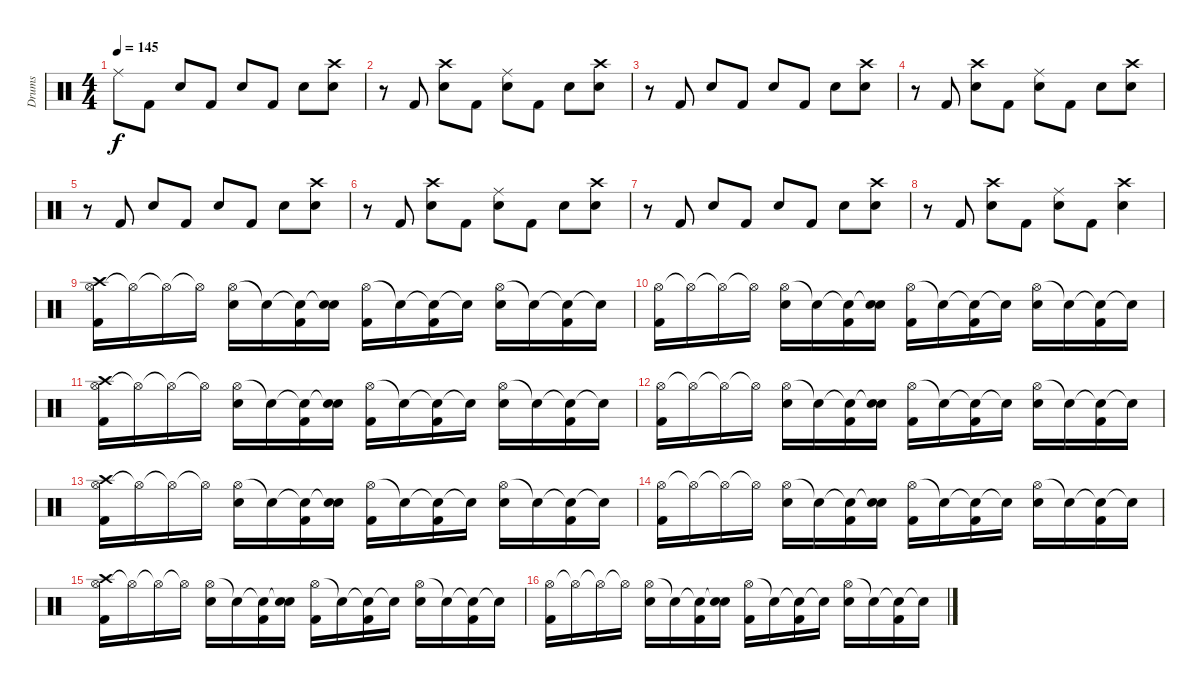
\track ("Drums" "Drums") {instrument percussion}
\staff {score}
\articulation defaults
\ts (4 4)
\tempo 145
\clef neutral
\ks c "Ride (middle)".8{dy f} "Kick (hit) 2".8 "Electric Snare (hit)".8 "Kick (hit) 2".8 "Electric Snare (hit)".8 "Kick (hit) 2".8 "Electric Snare (hit)".8
("Electric Snare (hit)" "Crash high (hit)").8 |
r.8 "Kick (hit) 2".8 ("Crash high (hit)" "Electric Snare (hit)").8 "Kick (hit) 2".8 ("Electric Snare (hit)" "Ride (middle)").8 "Kick (hit) 2".8 "Electric Snare (hit)".8 ("Electric Snare (hit)" "Crash high (hit)").8 |
r.8 "Kick (hit) 2".8 "Electric Snare (hit)".8 "Kick (hit) 2".8 "Electric Snare (hit)".8 "Kick (hit) 2".8 "Electric Snare (hit)".8 ("Electric Snare (hit)" "Crash high (hit)").8 |
r.8 "Kick (hit) 2".8 ("Crash high (hit)" "Electric Snare (hit)").8 "Kick (hit) 2".8 ("Electric Snare (hit)" "Ride (middle)").8 "Kick (hit) 2".8 "Electric Snare (hit)".8 ("Electric Snare (hit)" "Crash high (hit)").8 |
r.8 "Kick (hit) 2".8 "Electric Snare (hit)".8 "Kick (hit) 2".8 "Electric Snare (hit)".8 "Kick (hit) 2".8 "Electric Snare (hit)".8 ("Electric Snare (hit)" "Crash high (hit)").8 |
r.8 "Kick (hit) 2".8 ("Crash high (hit)" "Electric Snare (hit)").8 "Kick (hit) 2".8 ("Electric Snare (hit)" "Ride (middle)").8 "Kick (hit) 2".8 "Electric Snare (hit)".8 ("Electric Snare (hit)" "Crash high (hit)").8 |
r.8 "Kick (hit) 2".8 "Electric Snare (hit)".8 "Kick (hit) 2".8 "Electric Snare (hit)".8 "Kick (hit) 2".8 "Electric Snare (hit)".8 ("Electric Snare (hit)" "Crash high (hit)").8 |
r.8 "Kick (hit) 2".8 ("Crash high (hit)" "Electric Snare (hit)").8 "Kick (hit) 2".8 ("Electric Snare (hit)" "Ride (middle)").8 "Kick (hit) 2".8 ("Electric Snare (hit)" "Crash high (hit)").4 |
("Hi-Hat (open)" "Kick (hit) 2" "Crash high (hit)").16 "Hi-Hat (open)"{t}.16 "Hi-Hat (open)"{t}.16 "Hi-Hat (open)"{t}.16 ("Hi-Hat (open)" "Electric Snare (hit)").16 "Snare (hit)"{t}.16 ("Snare (hit)"{t} "Kick (hit) 2").16 ("Snare (hit)"{t} "Electric Snare (hit)").16 ("Hi-Hat (open)" "Kick (hit) 2").16 "Snare (hit)"{t}.16 ("Snare (hit)"{t} "Kick (hit) 2").16 "Snare (hit)"{t}.16 ("Hi-Hat (open)" "Electric Snare (hit)").16 "Snare (hit)"{t}.16 ("Snare (hit)"{t} "Kick (hit) 2").16 "Snare (hit)"{t}.16 |
("Hi-Hat (open)" "Kick (hit) 2").16 "Hi-Hat (open)"{t}.16 "Hi-Hat (open)"{t}.16 "Hi-Hat (open)"{t}.16 ("Hi-Hat (open)" "Electric Snare (hit)").16 "Snare (hit)"{t}.16 ("Snare (hit)"{t} "Kick (hit) 2").16 ("Snare (hit)"{t} "Electric Snare (hit)").16 ("Hi-Hat (open)" "Kick (hit) 2").16 "Snare (hit)"{t}.16 ("Snare (hit)"{t} "Kick (hit) 2").16 "Snare (hit)"{t}.16 ("Hi-Hat (open)" "Electric Snare (hit)").16 "Snare (hit)"{t}.16 ("Snare (hit)"{t} "Kick (hit) 2").16 "Snare (hit)"{t}.16 |
("Hi-Hat (open)" "Kick (hit) 2" "Crash high (hit)").16 "Hi-Hat (open)"{t}.16 "Hi-Hat (open)"{t}.16 "Hi-Hat (open)"{t}.16 ("Hi-Hat (open)" "Electric Snare (hit)").16 "Snare (hit)"{t}.16 ("Snare (hit)"{t} "Kick (hit) 2").16 ("Snare (hit)"{t} "Electric Snare (hit)").16 ("Hi-Hat (open)" "Kick (hit) 2").16 "Snare (hit)"{t}.16 ("Snare (hit)"{t} "Kick (hit) 2").16 "Snare (hit)"{t}.16 ("Hi-Hat (open)" "Electric Snare (hit)").16 "Snare (hit)"{t}.16 ("Snare (hit)"{t} "Kick (hit) 2").16 "Snare (hit)"{t}.16 |
("Hi-Hat (open)" "Kick (hit) 2").16 "Hi-Hat (open)"{t}.16 "Hi-Hat (open)"{t}.16 "Hi-Hat (open)"{t}.16 ("Hi-Hat (open)" "Electric Snare (hit)").16 "Snare (hit)"{t}.16 ("Snare (hit)"{t} "Kick (hit) 2").16 ("Snare (hit)"{t} "Electric Snare (hit)").16 ("Hi-Hat (open)" "Kick (hit) 2").16 "Snare (hit)"{t}.16 ("Snare (hit)"{t} "Kick (hit) 2").16 "Snare (hit)"{t}.16 ("Hi-Hat (open)" "Electric Snare (hit)").16 "Snare (hit)"{t}.16 ("Snare (hit)"{t} "Kick (hit) 2").16 "Snare (hit)"{t}.16 |
("Hi-Hat (open)" "Kick (hit) 2" "Crash high (hit)").16 "Hi-Hat (open)"{t}.16 "Hi-Hat (open)"{t}.16 "Hi-Hat (open)"{t}.16 ("Hi-Hat (open)" "Electric Snare (hit)").16 "Snare (hit)"{t}.16 ("Snare (hit)"{t} "Kick (hit) 2").16 ("Snare (hit)"{t} "Electric Snare (hit)").16 ("Hi-Hat (open)" "Kick (hit) 2").16 "Snare (hit)"{t}.16 ("Snare (hit)"{t} "Kick (hit) 2").16 "Snare (hit)"{t}.16 ("Hi-Hat (open)" "Electric Snare (hit)").16 "Snare (hit)"{t}.16 ("Snare (hit)"{t} "Kick (hit) 2").16 "Snare (hit)"{t}.16 |
("Hi-Hat (open)" "Kick (hit) 2").16 "Hi-Hat (open)"{t}.16 "Hi-Hat (open)"{t}.16 "Hi-Hat (open)"{t}.16 ("Hi-Hat (open)" "Electric Snare (hit)").16 "Snare (hit)"{t}.16 ("Snare (hit)"{t} "Kick (hit) 2").16 ("Snare (hit)"{t} "Electric Snare (hit)").16 ("Hi-Hat (open)" "Kick (hit) 2").16 "Snare (hit)"{t}.16 ("Snare (hit)"{t} "Kick (hit) 2").16 "Snare (hit)"{t}.16 ("Hi-Hat (open)" "Electric Snare (hit)").16 "Snare (hit)"{t}.16 ("Snare (hit)"{t} "Kick (hit) 2").16 "Snare (hit)"{t}.16 |
("Hi-Hat (open)" "Kick (hit) 2" "Crash high (hit)").16 "Hi-Hat (open)"{t}.16 "Hi-Hat (open)"{t}.16 "Hi-Hat (open)"{t}.16 ("Hi-Hat (open)" "Electric Snare (hit)").16 "Snare (hit)"{t}.16 ("Snare (hit)"{t} "Kick (hit) 2").16 ("Snare (hit)"{t} "Electric Snare (hit)").16 ("Hi-Hat (open)" "Kick (hit) 2").16 "Snare (hit)"{t}.16 ("Snare (hit)"{t} "Kick (hit) 2").16 "Snare (hit)"{t}.16 ("Hi-Hat (open)" "Electric Snare (hit)").16 "Snare (hit)"{t}.16 ("Snare (hit)"{t} "Kick (hit) 2").16 "Snare (hit)"{t}.16 |
("Hi-Hat (open)" "Kick (hit) 2").16 "Hi-Hat (open)"{t}.16 "Hi-Hat (open)"{t}.16 "Hi-Hat (open)"{t}.16 ("Hi-Hat (open)" "Electric Snare (hit)").16 "Snare (hit)"{t}.16 ("Snare (hit)"{t} "Kick (hit) 2").16 ("Snare (hit)"{t} "Electric Snare (hit)").16 ("Hi-Hat (open)" "Kick (hit) 2").16 "Snare (hit)"{t}.16 ("Snare (hit)"{t} "Kick (hit) 2").16 "Snare (hit)"{t}.16 ("Hi-Hat (open)" "Electric Snare (hit)").16 "Snare (hit)"{t}.16 ("Snare (hit)"{t} "Kick (hit) 2").16 "Snare (hit)"{t}.16
